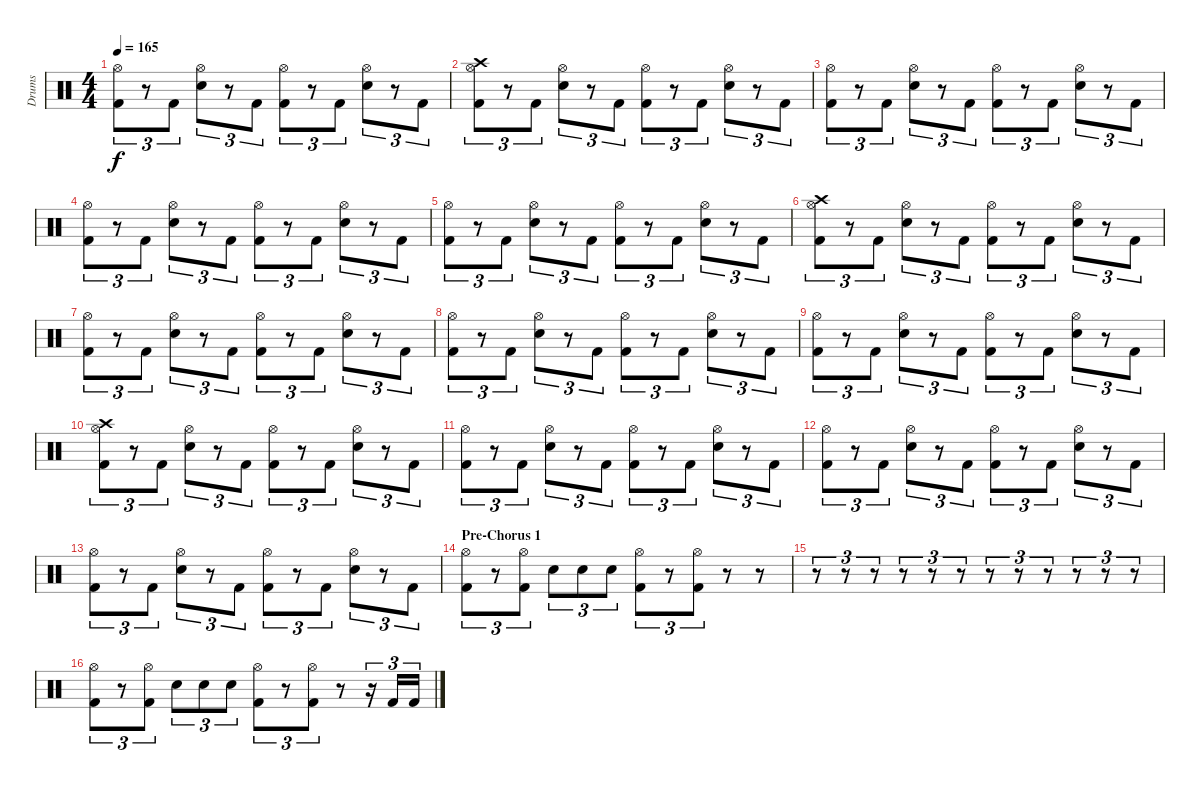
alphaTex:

\track ("Drums" "Drums") {instrument percussion}
\staff {score}
\articulation defaults
\ts (4 4)
\tempo 165
\clef neutral
\ks c
("Hi-Hat (open)" "Kick (hit) 2").8{tu (3 2) dy f} r.8{tu (3 2)} "Kick (hit) 2".8{tu (3 2)} ("Hi-Hat (open)" "Snare (hit) 2").8{tu (3 2)} r.8{tu (3 2)} "Kick (hit) 2".8{tu (3 2)} ("Hi-Hat (open)" "Kick (hit) 2").8{tu (3 2)} r.8{tu (3 2)} "Kick (hit) 2".8{tu (3 2)} ("Hi-Hat (open)" "Snare (hit) 2").8{tu (3 2)} r.8{tu (3 2)} "Kick (hit) 2".8{tu (3 2)} |
("Hi-Hat (open)" "Crash high (hit)" "Kick (hit) 2").8{tu (3 2)} r.8{tu (3 2)} "Kick (hit) 2".8{tu (3 2)} ("Hi-Hat (open)" "Snare (hit) 2").8{tu (3 2)} r.8{tu (3 2)} "Kick (hit) 2".8{tu (3 2)} ("Hi-Hat (open)" "Kick (hit) 2").8{tu (3 2)} r.8{tu (3 2)} "Kick (hit) 2".8{tu (3 2)} ("Hi-Hat (open)" "Snare (hit) 2").8{tu (3 2)} r.8{tu (3 2)} "Kick (hit) 2".8{tu (3 2)} |
("Hi-Hat (open)" "Kick (hit) 2").8{tu (3 2)} r.8{tu (3 2)} "Kick (hit) 2".8{tu (3 2)} ("Hi-Hat (open)" "Snare (hit) 2").8{tu (3 2)} r.8{tu (3 2)} "Kick (hit) 2".8{tu (3 2)} ("Hi-Hat (open)" "Kick (hit) 2").8{tu (3 2)} r.8{tu (3 2)} "Kick (hit) 2".8{tu (3 2)} ("Hi-Hat (open)" "Snare (hit) 2").8{tu (3 2)} r.8{tu (3 2)} "Kick (hit) 2".8{tu (3 2)} |
("Hi-Hat (open)" "Kick (hit) 2").8{tu (3 2)} r.8{tu (3 2)} "Kick (hit) 2".8{tu (3 2)} ("Hi-Hat (open)" "Snare (hit) 2").8{tu (3 2)} r.8{tu (3 2)} "Kick (hit) 2".8{tu (3 2)} ("Hi-Hat (open)" "Kick (hit) 2").8{tu (3 2)} r.8{tu (3 2)} "Kick (hit) 2".8{tu (3 2)} ("Hi-Hat (open)" "Snare (hit) 2").8{tu (3 2)} r.8{tu (3 2)} "Kick (hit) 2".8{tu (3 2)} |
("Hi-Hat (open)" "Kick (hit) 2").8{tu (3 2)} r.8{tu (3 2)} "Kick (hit) 2".8{tu (3 2)} ("Hi-Hat (open)" "Snare (hit) 2").8{tu (3 2)} r.8{tu (3 2)} "Kick (hit) 2".8{tu (3 2)} ("Hi-Hat (open)" "Kick (hit) 2").8{tu (3 2)} r.8{tu (3 2)} "Kick (hit) 2".8{tu (3 2)} ("Hi-Hat (open)" "Snare (hit) 2").8{tu (3 2)} r.8{tu (3 2)} "Kick (hit) 2".8{tu (3 2)} |
("Hi-Hat (open)" "Crash high (hit)" "Kick (hit) 2").8{tu (3 2)} r.8{tu (3 2)} "Kick (hit) 2".8{tu (3 2)} ("Hi-Hat (open)" "Snare (hit) 2").8{tu (3 2)} r.8{tu (3 2)} "Kick (hit) 2".8{tu (3 2)} ("Hi-Hat (open)" "Kick (hit) 2").8{tu (3 2)} r.8{tu (3 2)} "Kick (hit) 2".8{tu (3 2)} ("Hi-Hat (open)" "Snare (hit) 2").8{tu (3 2)} r.8{tu (3 2)} "Kick (hit) 2".8{tu (3 2)} |
("Hi-Hat (open)" "Kick (hit) 2").8{tu (3 2)} r.8{tu (3 2)} "Kick (hit) 2".8{tu (3 2)} ("Hi-Hat (open)" "Snare (hit) 2").8{tu (3 2)} r.8{tu (3 2)} "Kick (hit) 2".8{tu (3 2)} ("Hi-Hat (open)" "Kick (hit) 2").8{tu (3 2)} r.8{tu (3 2)} "Kick (hit) 2".8{tu (3 2)} ("Hi-Hat (open)" "Snare (hit) 2").8{tu (3 2)} r.8{tu (3 2)} "Kick (hit) 2".8{tu (3 2)} |
("Hi-Hat (open)" "Kick (hit) 2").8{tu (3 2)} r.8{tu (3 2)} "Kick (hit) 2".8{tu (3 2)} ("Hi-Hat (open)" "Snare (hit) 2").8{tu (3 2)} r.8{tu (3 2)} "Kick (hit) 2".8{tu (3 2)} ("Hi-Hat (open)" "Kick (hit) 2").8{tu (3 2)} r.8{tu (3 2)} "Kick (hit) 2".8{tu (3 2)} ("Hi-Hat (open)" "Snare (hit) 2").8{tu (3 2)} r.8{tu (3 2)} "Kick (hit) 2".8{tu (3 2)} |
("Hi-Hat (open)" "Kick (hit) 2").8{tu (3 2)} r.8{tu (3 2)} "Kick (hit) 2".8{tu (3 2)} ("Hi-Hat (open)" "Snare (hit) 2").8{tu (3 2)} r.8{tu (3 2)} "Kick (hit) 2".8{tu (3 2)} ("Hi-Hat (open)" "Kick (hit) 2").8{tu (3 2)} r.8{tu (3 2)} "Kick (hit) 2".8{tu (3 2)} ("Hi-Hat (open)" "Snare (hit) 2").8{tu (3 2)} r.8{tu (3 2)} "Kick (hit) 2".8{tu (3 2)} |
("Hi-Hat (open)" "Crash high (hit)" "Kick (hit) 2").8{tu (3 2)} r.8{tu (3 2)} "Kick (hit) 2".8{tu (3 2)} ("Hi-Hat (open)" "Snare (hit) 2").8{tu (3 2)} r.8{tu (3 2)} "Kick (hit) 2".8{tu (3 2)} ("Hi-Hat (open)" "Kick (hit) 2").8{tu (3 2)} r.8{tu (3 2)} "Kick (hit) 2".8{tu (3 2)} ("Hi-Hat (open)" "Snare (hit) 2").8{tu (3 2)} r.8{tu (3 2)} "Kick (hit) 2".8{tu (3 2)} |
("Hi-Hat (open)" "Kick (hit) 2").8{tu (3 2)} r.8{tu (3 2)} "Kick (hit) 2".8{tu (3 2)} ("Hi-Hat (open)" "Snare (hit) 2").8{tu (3 2)} r.8{tu (3 2)} "Kick (hit) 2".8{tu (3 2)} ("Hi-Hat (open)" "Kick (hit) 2").8{tu (3 2)} r.8{tu (3 2)} "Kick (hit) 2".8{tu (3 2)} ("Hi-Hat (open)" "Snare (hit) 2").8{tu (3 2)} r.8{tu (3 2)} "Kick (hit) 2".8{tu (3 2)} |
("Hi-Hat (open)" "Kick (hit) 2").8{tu (3 2)} r.8{tu (3 2)} "Kick (hit) 2".8{tu (3 2)} ("Hi-Hat (open)" "Snare (hit) 2").8{tu (3 2)} r.8{tu (3 2)} "Kick (hit) 2".8{tu (3 2)} ("Hi-Hat (open)" "Kick (hit) 2").8{tu (3 2)} r.8{tu (3 2)} "Kick (hit) 2".8{tu (3 2)} ("Hi-Hat (open)" "Snare (hit) 2").8{tu (3 2)} r.8{tu (3 2)} "Kick (hit) 2".8{tu (3 2)} |
("Hi-Hat (open)" "Kick (hit) 2").8{tu (3 2)} r.8{tu (3 2)} "Kick (hit) 2".8{tu (3 2)} ("Hi-Hat (open)" "Snare (hit) 2").8{tu (3 2)} r.8{tu (3 2)} "Kick (hit) 2".8{tu (3 2)} ("Hi-Hat (open)" "Kick (hit) 2").8{tu (3 2)} r.8{tu (3 2)} "Kick (hit) 2".8{tu (3 2)} ("Hi-Hat (open)" "Snare (hit) 2").8{tu (3 2)} r.8{tu (3 2)} "Kick (hit) 2".8{tu (3 2)} |
\section ("" "Pre-Chorus 1")
("Hi-Hat (open)" "Kick (hit) 2").8{tu (3 2)} r.8{tu (3 2)} ("Hi-Hat (open)" "Kick (hit) 2").8{tu (3 2)} "Snare (hit) 2".8{tu (3 2)} "Snare (hit) 2".8{tu (3 2)} "Snare (hit) 2".8{tu (3 2)} ("Hi-Hat (open)" "Kick (hit) 2").8{tu (3 2)} r.8{tu (3 2)} ("Hi-Hat (open)" "Kick (hit) 2").8{tu (3 2)} r.8 r.8 |
r.8{tu (3 2)} r.8{tu (3 2)} r.8{tu (3 2)} r.8{tu (3 2)} r.8{tu (3 2)} r.8{tu (3 2)} r.8{tu (3 2)} r.8{tu (3 2)} r.8{tu (3 2)} r.8{tu (3 2)} r.8{tu (3 2)} r.8{tu (3 2)} |
("Hi-Hat (open)" "Kick (hit) 2").8{tu (3 2)} r.8{tu (3 2)} ("Hi-Hat (open)" "Kick (hit) 2").8{tu (3 2)} "Snare (hit) 2".8{tu (3 2)} "Snare (hit) 2".8{tu (3 2)} "Snare (hit) 2".8{tu (3 2)} ("Hi-Hat (open)" "Kick (hit) 2").8{tu (3 2)} r.8{tu (3 2)} ("Hi-Hat (open)" "Kick (hit) 2").8{tu (3 2)} r.8 r.16{tu (3 2)} "Kick (hit) 2".16{tu (3 2)} "Kick (hit) 2".16{tu (3 2)}
